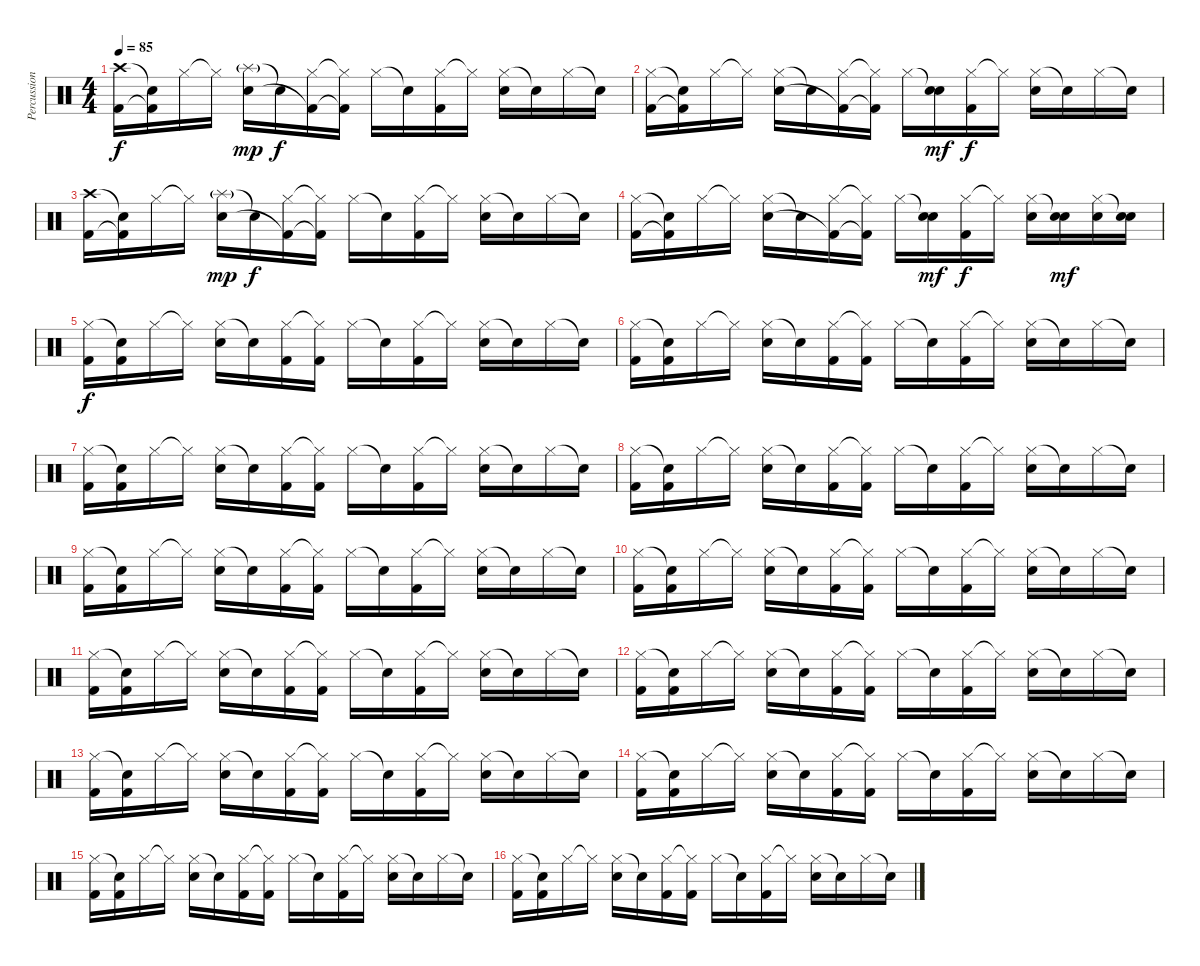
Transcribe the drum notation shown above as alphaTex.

\track ("Percussion" "Percussion") {instrument percussion}
\staff {score}
\articulation defaults
\ts (4 4)
\tempo 85
\clef neutral
\ks c
("Crash high (hit)" "Kick (hit) 2").16{dy f} ("Snare (hit)"{t} "Kick (hit) 2"{t}).16 "Hi-Hat (closed)".16 "Hi-Hat (closed)"{t}.16 ("Splash (hit)"{g} "Snare (hit) 2").16{dy mp} "Snare (hit)"{t}.16{dy f} ("Hi-Hat (closed)" "Kick (hit) 2"{t}).16 ("Hi-Hat (closed)"{t} "Kick (hit) 2"{t}).16 "Hi-Hat (closed)".16 "Snare (hit)"{t}.16 ("Hi-Hat (closed)" "Kick (hit) 2").16 "Hi-Hat (closed)"{t}.16 ("Hi-Hat (closed)" "Snare (hit) 2").16 "Snare (hit)"{t}.16 "Hi-Hat (closed)".16 "Snare (hit)"{t}.16 |
("Hi-Hat (closed)" "Kick (hit) 2").16 ("Snare (hit)"{t} "Kick (hit) 2"{t}).16 "Hi-Hat (closed)".16 "Hi-Hat (closed)"{t}.16 ("Hi-Hat (closed)" "Snare (hit) 2").16 "Snare (hit)"{t}.16 ("Hi-Hat (closed)" "Kick (hit) 2"{t}).16 ("Hi-Hat (closed)"{t} "Kick (hit) 2"{t}).16 "Hi-Hat (closed)".16 ("Snare (hit)"{t} "Snare (hit) 2").16{dy mf} ("Hi-Hat (closed)" "Kick (hit) 2").16{dy f} "Hi-Hat (closed)"{t}.16 ("Hi-Hat (closed)" "Snare (hit) 2").16 "Snare (hit)"{t}.16 "Hi-Hat (closed)".16 "Snare (hit)"{t}.16 |
("Crash high (hit)" "Kick (hit) 2").16 ("Snare (hit)"{t} "Kick (hit) 2"{t}).16 "Hi-Hat (closed)".16 "Hi-Hat (closed)"{t}.16 ("Splash (hit)"{g} "Snare (hit) 2").16{dy mp} "Snare (hit)"{t}.16{dy f} ("Hi-Hat (closed)" "Kick (hit) 2"{t}).16 ("Hi-Hat (closed)"{t} "Kick (hit) 2"{t}).16 "Hi-Hat (closed)".16 "Snare (hit)"{t}.16 ("Hi-Hat (closed)" "Kick (hit) 2").16 "Hi-Hat (closed)"{t}.16 ("Hi-Hat (closed)" "Snare (hit) 2").16 "Snare (hit)"{t}.16 "Hi-Hat (closed)".16 "Snare (hit)"{t}.16 |
("Hi-Hat (closed)" "Kick (hit) 2").16 ("Snare (hit)"{t} "Kick (hit) 2"{t}).16 "Hi-Hat (closed)".16 "Hi-Hat (closed)"{t}.16 ("Hi-Hat (closed)" "Snare (hit) 2").16 "Snare (hit)"{t}.16 ("Hi-Hat (closed)" "Kick (hit) 2"{t}).16 ("Hi-Hat (closed)"{t} "Kick (hit) 2"{t}).16 "Hi-Hat (closed)".16 ("Snare (hit)"{t} "Snare (hit) 2").16{dy mf} ("Hi-Hat (closed)" "Kick (hit) 2").16{dy f} "Hi-Hat (closed)"{t}.16 ("Hi-Hat (closed)" "Snare (hit) 2").16 ("Snare (hit)"{t} "Snare (hit) 2").16{dy mf} ("Hi-Hat (closed)" "Snare (hit) 2").16 ("Snare (hit)"{t} "Snare (hit) 2").16 |
("Hi-Hat (closed)" "Kick (hit) 2").16{dy f} ("Snare (hit)"{t} "Kick (hit) 2").16 "Hi-Hat (closed)".16 "Hi-Hat (closed)"{t}.16 ("Hi-Hat (closed)" "Snare (hit) 2").16 "Snare (hit)"{t}.16 ("Hi-Hat (closed)" "Kick (hit) 2").16 ("Hi-Hat (closed)"{t} "Kick (hit) 2").16 "Hi-Hat (closed)".16 "Snare (hit)"{t}.16 ("Hi-Hat (closed)" "Kick (hit) 2").16 "Hi-Hat (closed)"{t}.16 ("Hi-Hat (closed)" "Snare (hit) 2").16 "Snare (hit)"{t}.16 "Hi-Hat (closed)".16 "Snare (hit)"{t}.16 |
("Hi-Hat (closed)" "Kick (hit) 2").16 ("Snare (hit)"{t} "Kick (hit) 2").16 "Hi-Hat (closed)".16 "Hi-Hat (closed)"{t}.16 ("Hi-Hat (closed)" "Snare (hit) 2").16 "Snare (hit)"{t}.16 ("Hi-Hat (closed)" "Kick (hit) 2").16 ("Hi-Hat (closed)"{t} "Kick (hit) 2").16 "Hi-Hat (closed)".16 "Snare (hit)"{t}.16 ("Hi-Hat (closed)" "Kick (hit) 2").16 "Hi-Hat (closed)"{t}.16 ("Hi-Hat (closed)" "Snare (hit) 2").16 "Snare (hit)"{t}.16 "Hi-Hat (closed)".16 "Snare (hit)"{t}.16 |
("Hi-Hat (closed)" "Kick (hit) 2").16 ("Snare (hit)"{t} "Kick (hit) 2").16 "Hi-Hat (closed)".16 "Hi-Hat (closed)"{t}.16 ("Hi-Hat (closed)" "Snare (hit) 2").16 "Snare (hit)"{t}.16 ("Hi-Hat (closed)" "Kick (hit) 2").16 ("Hi-Hat (closed)"{t} "Kick (hit) 2").16 "Hi-Hat (closed)".16 "Snare (hit)"{t}.16 ("Hi-Hat (closed)" "Kick (hit) 2").16 "Hi-Hat (closed)"{t}.16 ("Hi-Hat (closed)" "Snare (hit) 2").16 "Snare (hit)"{t}.16 "Hi-Hat (closed)".16 "Snare (hit)"{t}.16 |
("Hi-Hat (closed)" "Kick (hit) 2").16 ("Snare (hit)"{t} "Kick (hit) 2").16 "Hi-Hat (closed)".16 "Hi-Hat (closed)"{t}.16 ("Hi-Hat (closed)" "Snare (hit) 2").16 "Snare (hit)"{t}.16 ("Hi-Hat (closed)" "Kick (hit) 2").16 ("Hi-Hat (closed)"{t} "Kick (hit) 2").16 "Hi-Hat (closed)".16 "Snare (hit)"{t}.16 ("Hi-Hat (closed)" "Kick (hit) 2").16 "Hi-Hat (closed)"{t}.16 ("Hi-Hat (closed)" "Snare (hit) 2").16 "Snare (hit)"{t}.16 "Hi-Hat (closed)".16 "Snare (hit)"{t}.16 |
("Hi-Hat (closed)" "Kick (hit) 2").16 ("Snare (hit)"{t} "Kick (hit) 2").16 "Hi-Hat (closed)".16 "Hi-Hat (closed)"{t}.16 ("Hi-Hat (closed)" "Snare (hit) 2").16 "Snare (hit)"{t}.16 ("Hi-Hat (closed)" "Kick (hit) 2").16 ("Hi-Hat (closed)"{t} "Kick (hit) 2").16 "Hi-Hat (closed)".16 "Snare (hit)"{t}.16 ("Hi-Hat (closed)" "Kick (hit) 2").16 "Hi-Hat (closed)"{t}.16 ("Hi-Hat (closed)" "Snare (hit) 2").16 "Snare (hit)"{t}.16 "Hi-Hat (closed)".16 "Snare (hit)"{t}.16 |
("Hi-Hat (closed)" "Kick (hit) 2").16 ("Snare (hit)"{t} "Kick (hit) 2").16 "Hi-Hat (closed)".16 "Hi-Hat (closed)"{t}.16 ("Hi-Hat (closed)" "Snare (hit) 2").16 "Snare (hit)"{t}.16 ("Hi-Hat (closed)" "Kick (hit) 2").16 ("Hi-Hat (closed)"{t} "Kick (hit) 2").16 "Hi-Hat (closed)".16 "Snare (hit)"{t}.16 ("Hi-Hat (closed)" "Kick (hit) 2").16 "Hi-Hat (closed)"{t}.16 ("Hi-Hat (closed)" "Snare (hit) 2").16 "Snare (hit)"{t}.16 "Hi-Hat (closed)".16 "Snare (hit)"{t}.16 |
("Hi-Hat (closed)" "Kick (hit) 2").16 ("Snare (hit)"{t} "Kick (hit) 2").16 "Hi-Hat (closed)".16 "Hi-Hat (closed)"{t}.16 ("Hi-Hat (closed)" "Snare (hit) 2").16 "Snare (hit)"{t}.16 ("Hi-Hat (closed)" "Kick (hit) 2").16 ("Hi-Hat (closed)"{t} "Kick (hit) 2").16 "Hi-Hat (closed)".16 "Snare (hit)"{t}.16 ("Hi-Hat (closed)" "Kick (hit) 2").16 "Hi-Hat (closed)"{t}.16 ("Hi-Hat (closed)" "Snare (hit) 2").16 "Snare (hit)"{t}.16 "Hi-Hat (closed)".16 "Snare (hit)"{t}.16 |
("Hi-Hat (closed)" "Kick (hit) 2").16 ("Snare (hit)"{t} "Kick (hit) 2").16 "Hi-Hat (closed)".16 "Hi-Hat (closed)"{t}.16 ("Hi-Hat (closed)" "Snare (hit) 2").16 "Snare (hit)"{t}.16 ("Hi-Hat (closed)" "Kick (hit) 2").16 ("Hi-Hat (closed)"{t} "Kick (hit) 2").16 "Hi-Hat (closed)".16 "Snare (hit)"{t}.16 ("Hi-Hat (closed)" "Kick (hit) 2").16 "Hi-Hat (closed)"{t}.16 ("Hi-Hat (closed)" "Snare (hit) 2").16 "Snare (hit)"{t}.16 "Hi-Hat (closed)".16 "Snare (hit)"{t}.16 |
("Hi-Hat (closed)" "Kick (hit) 2").16 ("Snare (hit)"{t} "Kick (hit) 2").16 "Hi-Hat (closed)".16 "Hi-Hat (closed)"{t}.16 ("Hi-Hat (closed)" "Snare (hit) 2").16 "Snare (hit)"{t}.16 ("Hi-Hat (closed)" "Kick (hit) 2").16 ("Hi-Hat (closed)"{t} "Kick (hit) 2").16 "Hi-Hat (closed)".16 "Snare (hit)"{t}.16 ("Hi-Hat (closed)" "Kick (hit) 2").16 "Hi-Hat (closed)"{t}.16 ("Hi-Hat (closed)" "Snare (hit) 2").16 "Snare (hit)"{t}.16 "Hi-Hat (closed)".16 "Snare (hit)"{t}.16 |
("Hi-Hat (closed)" "Kick (hit) 2").16 ("Snare (hit)"{t} "Kick (hit) 2").16 "Hi-Hat (closed)".16 "Hi-Hat (closed)"{t}.16 ("Hi-Hat (closed)" "Snare (hit) 2").16 "Snare (hit)"{t}.16 ("Hi-Hat (closed)" "Kick (hit) 2").16 ("Hi-Hat (closed)"{t} "Kick (hit) 2").16 "Hi-Hat (closed)".16 "Snare (hit)"{t}.16 ("Hi-Hat (closed)" "Kick (hit) 2").16 "Hi-Hat (closed)"{t}.16 ("Hi-Hat (closed)" "Snare (hit) 2").16 "Snare (hit)"{t}.16 "Hi-Hat (closed)".16 "Snare (hit)"{t}.16 |
("Hi-Hat (closed)" "Kick (hit) 2").16 ("Snare (hit)"{t} "Kick (hit) 2").16 "Hi-Hat (closed)".16 "Hi-Hat (closed)"{t}.16 ("Hi-Hat (closed)" "Snare (hit) 2").16 "Snare (hit)"{t}.16 ("Hi-Hat (closed)" "Kick (hit) 2").16 ("Hi-Hat (closed)"{t} "Kick (hit) 2").16 "Hi-Hat (closed)".16 "Snare (hit)"{t}.16 ("Hi-Hat (closed)" "Kick (hit) 2").16 "Hi-Hat (closed)"{t}.16 ("Hi-Hat (closed)" "Snare (hit) 2").16 "Snare (hit)"{t}.16 "Hi-Hat (closed)".16 "Snare (hit)"{t}.16 |
("Hi-Hat (closed)" "Kick (hit) 2").16 ("Snare (hit)"{t} "Kick (hit) 2").16 "Hi-Hat (closed)".16 "Hi-Hat (closed)"{t}.16 ("Hi-Hat (closed)" "Snare (hit) 2").16 "Snare (hit)"{t}.16 ("Hi-Hat (closed)" "Kick (hit) 2").16 ("Hi-Hat (closed)"{t} "Kick (hit) 2").16 "Hi-Hat (closed)".16 "Snare (hit)"{t}.16 ("Hi-Hat (closed)" "Kick (hit) 2").16 "Hi-Hat (closed)"{t}.16 ("Hi-Hat (closed)" "Snare (hit) 2").16 "Snare (hit)"{t}.16 "Hi-Hat (closed)".16 "Snare (hit)"{t}.16
